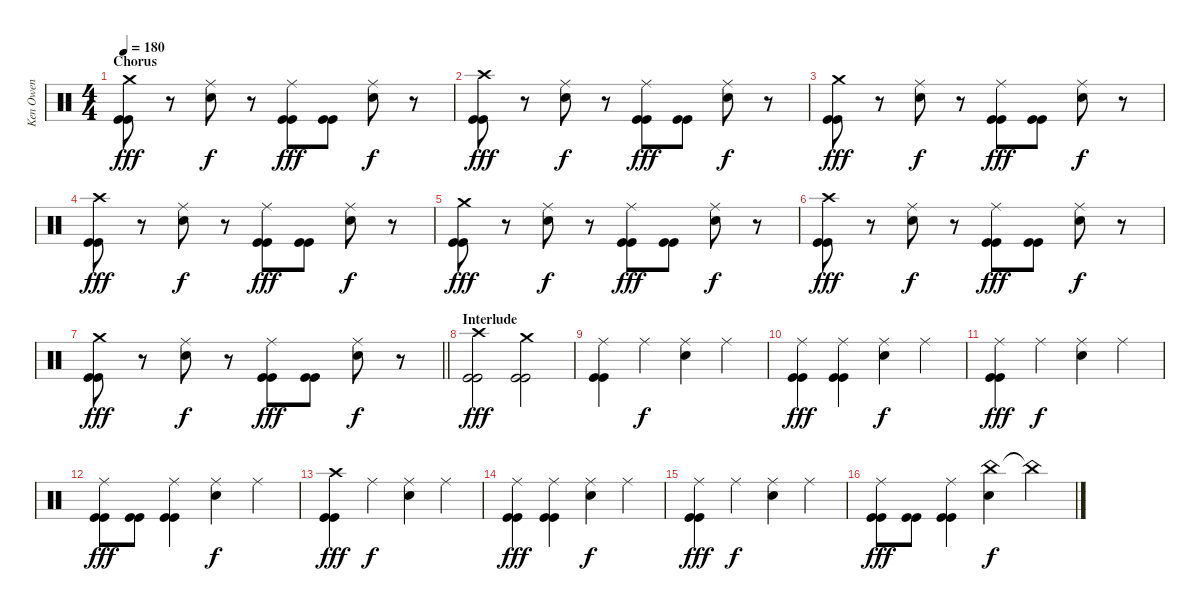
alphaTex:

\track ("Ken Owen" "Ken Owen") {instrument percussion}
\staff {score}
\articulation defaults
\ts (4 4)
\section ("" "Chorus")
\tempo 180
\clef neutral
\ks c
("Crash medium (hit)" "Kick (hit)" "Kick (hit)").8{dy fff} r.8 ("Ride (middle)" "Snare (hit) 2").8{dy f} r.8 ("Ride (middle)" "Kick (hit)" "Kick (hit)").8{dy fff} ("Kick (hit)" "Kick (hit)").8 ("Ride (middle)" "Snare (hit) 2").8{dy f} r.8 |
("Crash high (hit)" "Kick (hit)" "Kick (hit)").8{dy fff} r.8 ("Ride (middle)" "Snare (hit) 2").8{dy f} r.8 ("Ride (middle)" "Kick (hit)" "Kick (hit)").8{dy fff} ("Kick (hit)" "Kick (hit)").8 ("Ride (middle)" "Snare (hit) 2").8{dy f} r.8 |
("Crash medium (hit)" "Kick (hit)" "Kick (hit)").8{dy fff} r.8 ("Ride (middle)" "Snare (hit) 2").8{dy f} r.8 ("Ride (middle)" "Kick (hit)" "Kick (hit)").8{dy fff} ("Kick (hit)" "Kick (hit)").8 ("Ride (middle)" "Snare (hit) 2").8{dy f} r.8 |
("Crash high (hit)" "Kick (hit)" "Kick (hit)").8{dy fff} r.8 ("Ride (middle)" "Snare (hit) 2").8{dy f} r.8 ("Ride (middle)" "Kick (hit)" "Kick (hit)").8{dy fff} ("Kick (hit)" "Kick (hit)").8 ("Ride (middle)" "Snare (hit) 2").8{dy f} r.8 |
("Crash medium (hit)" "Kick (hit)" "Kick (hit)").8{dy fff} r.8 ("Ride (middle)" "Snare (hit) 2").8{dy f} r.8 ("Ride (middle)" "Kick (hit)" "Kick (hit)").8{dy fff} ("Kick (hit)" "Kick (hit)").8 ("Ride (middle)" "Snare (hit) 2").8{dy f} r.8 |
("Crash high (hit)" "Kick (hit)" "Kick (hit)").8{dy fff} r.8 ("Ride (middle)" "Snare (hit) 2").8{dy f} r.8 ("Ride (middle)" "Kick (hit)" "Kick (hit)").8{dy fff} ("Kick (hit)" "Kick (hit)").8 ("Ride (middle)" "Snare (hit) 2").8{dy f} r.8 |
\barLineRight lightlight
("Crash medium (hit)" "Kick (hit)" "Kick (hit)").8{dy fff} r.8 ("Ride (middle)" "Snare (hit) 2").8{dy f} r.8 ("Ride (middle)" "Kick (hit)" "Kick (hit)").8{dy fff} ("Kick (hit)" "Kick (hit)").8 ("Ride (middle)" "Snare (hit) 2").8{dy f} r.8 |
\section ("" "Interlude")
("Crash high (hit)" "Kick (hit)" "Kick (hit)").2{dy fff} ("Crash medium (hit)" "Kick (hit)" "Kick (hit)").2 |
("Ride (middle)" "Kick (hit)" "Kick (hit)").4 "Ride (middle)".4{dy f} ("Ride (middle)" "Snare (hit) 2").4 "Ride (middle)".4 |
("Ride (middle)" "Kick (hit)" "Kick (hit)").4{dy fff} ("Ride (middle)" "Kick (hit)" "Kick (hit)").4 ("Ride (middle)" "Snare (hit) 2").4{dy f} "Ride (middle)".4 |
("Ride (middle)" "Kick (hit)" "Kick (hit)").4{dy fff} "Ride (middle)".4{dy f} ("Ride (middle)" "Snare (hit) 2").4 "Ride (middle)".4 |
("Ride (middle)" "Kick (hit)" "Kick (hit)").8{dy fff} ("Kick (hit)" "Kick (hit)").8 ("Ride (middle)" "Kick (hit)" "Kick (hit)").4 ("Ride (middle)" "Snare (hit) 2").4{dy f} "Ride (middle)".4 |
("Crash high (hit)" "Kick (hit)" "Kick (hit)").4{dy fff} "Ride (middle)".4{dy f} ("Ride (middle)" "Snare (hit) 2").4 "Ride (middle)".4 |
("Ride (middle)" "Kick (hit)" "Kick (hit)").4{dy fff} ("Ride (middle)" "Kick (hit)" "Kick (hit)").4 ("Ride (middle)" "Snare (hit) 2").4{dy f} "Ride (middle)".4 |
("Ride (middle)" "Kick (hit)" "Kick (hit)").4{dy fff} "Ride (middle)".4{dy f} ("Ride (middle)" "Snare (hit) 2").4 "Ride (middle)".4 |
("Ride (middle)" "Kick (hit)" "Kick (hit)").8{dy fff} ("Kick (hit)" "Kick (hit)").8 ("Ride (middle)" "Kick (hit)" "Kick (hit)").4 ("China (hit)" "Snare (hit) 2").4{dy f} "China (hit)"{t}.4
